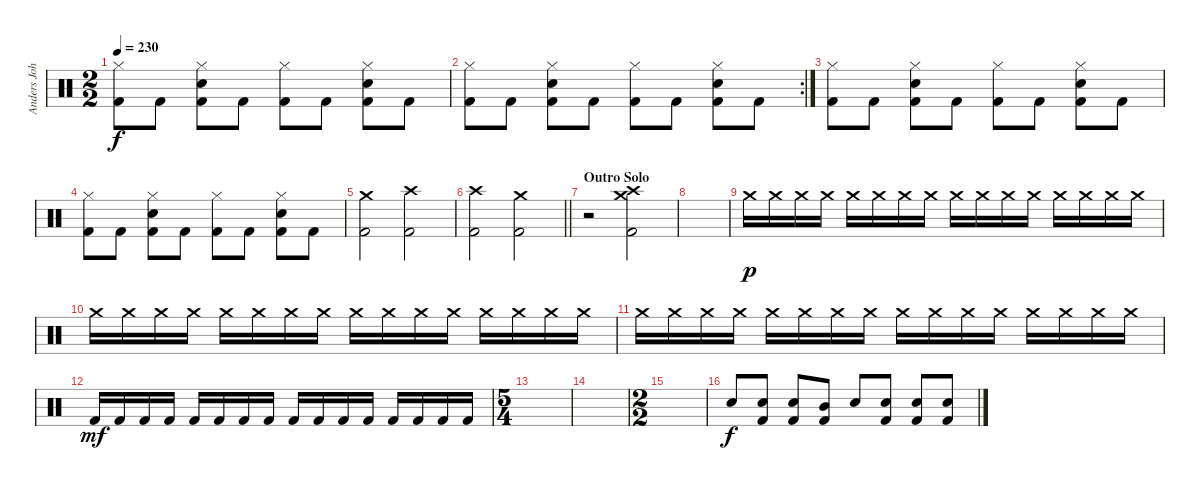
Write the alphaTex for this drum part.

\track ("Anders Johansson" "Anders Joh") {instrument percussion}
\staff {score}
\articulation defaults
\ts (2 2)
\tempo 230
\clef neutral
\ks c
("Hi-Hat (closed)" "Kick (hit) 2").8{dy f} "Kick (hit) 2".8 ("Electric Snare (hit)" "Hi-Hat (closed)" "Kick (hit) 2").8 "Kick (hit) 2".8 ("Hi-Hat (closed)" "Kick (hit) 2").8 "Kick (hit) 2".8 ("Electric Snare (hit)" "Hi-Hat (closed)" "Kick (hit) 2").8 "Kick (hit) 2".8 |
\rc 2
("Hi-Hat (closed)" "Kick (hit) 2").8 "Kick (hit) 2".8 ("Electric Snare (hit)" "Hi-Hat (closed)" "Kick (hit) 2").8 "Kick (hit) 2".8 ("Hi-Hat (closed)" "Kick (hit) 2").8 "Kick (hit) 2".8 ("Electric Snare (hit)" "Hi-Hat (closed)" "Kick (hit) 2").8 "Kick (hit) 2".8 |
("Hi-Hat (closed)" "Kick (hit) 2").8 "Kick (hit) 2".8 ("Electric Snare (hit)" "Hi-Hat (closed)" "Kick (hit) 2").8 "Kick (hit) 2".8 ("Hi-Hat (closed)" "Kick (hit) 2").8 "Kick (hit) 2".8 ("Electric Snare (hit)" "Hi-Hat (closed)" "Kick (hit) 2").8 "Kick (hit) 2".8 |
("Hi-Hat (closed)" "Kick (hit) 2").8 "Kick (hit) 2".8 ("Electric Snare (hit)" "Hi-Hat (closed)" "Kick (hit) 2").8 "Kick (hit) 2".8 ("Hi-Hat (closed)" "Kick (hit) 2").8 "Kick (hit) 2".8 ("Electric Snare (hit)" "Hi-Hat (closed)" "Kick (hit) 2").8 "Kick (hit) 2".8 |
("Crash medium (hit)" "Kick (hit) 2").2 ("Crash high (hit)" "Kick (hit) 2").2 |
\barLineRight lightlight
("Crash high (hit)" "Kick (hit) 2").2 ("Crash medium (hit)" "Kick (hit) 2").2 |
\section ("" "Outro Solo")
r.2 ("Crash medium (hit)" "Crash high (hit)" "Kick (hit) 2").2 |
|
"Crash medium (hit)".16{dy p} "Crash medium (hit)".16 "Crash medium (hit)".16 "Crash medium (hit)".16 "Crash medium (hit)".16 "Crash medium (hit)".16 "Crash medium (hit)".16 "Crash medium (hit)".16 "Crash medium (hit)".16 "Crash medium (hit)".16 "Crash medium (hit)".16 "Crash medium (hit)".16 "Crash medium (hit)".16 "Crash medium (hit)".16 "Crash medium (hit)".16 "Crash medium (hit)".16 |
"Crash medium (hit)".16 "Crash medium (hit)".16 "Crash medium (hit)".16 "Crash medium (hit)".16 "Crash medium (hit)".16 "Crash medium (hit)".16 "Crash medium (hit)".16 "Crash medium (hit)".16 "Crash medium (hit)".16 "Crash medium (hit)".16 "Crash medium (hit)".16 "Crash medium (hit)".16 "Crash medium (hit)".16 "Crash medium (hit)".16 "Crash medium (hit)".16 "Crash medium (hit)".16 |
"Crash medium (hit)".16 "Crash medium (hit)".16 "Crash medium (hit)".16 "Crash medium (hit)".16 "Crash medium (hit)".16 "Crash medium (hit)".16 "Crash medium (hit)".16 "Crash medium (hit)".16 "Crash medium (hit)".16 "Crash medium (hit)".16 "Crash medium (hit)".16 "Crash medium (hit)".16 "Crash medium (hit)".16 "Crash medium (hit)".16 "Crash medium (hit)".16 "Crash medium (hit)".16 |
"Kick (hit) 2".16{dy mf} "Kick (hit) 2".16 "Kick (hit) 2".16 "Kick (hit) 2".16 "Kick (hit) 2".16 "Kick (hit) 2".16 "Kick (hit) 2".16 "Kick (hit) 2".16 "Kick (hit) 2".16 "Kick (hit) 2".16 "Kick (hit) 2".16 "Kick (hit) 2".16 "Kick (hit) 2".16 "Kick (hit) 2".16 "Kick (hit) 2".16 "Kick (hit) 2".16 |
\ts (5 4)
|
|
\ts (2 2)
|
"Electric Snare (hit)".8{dy f} ("Electric Snare (hit)" "Kick (hit) 2").8 ("Electric Snare (hit)" "Kick (hit) 2").8 ("Mid Tom (hit)" "Kick (hit) 2").8 "Electric Snare (hit)".8 ("Electric Snare (hit)" "Kick (hit) 2").8 ("Electric Snare (hit)" "Kick (hit) 2").8 ("Electric Snare (hit)" "Kick (hit) 2").8
